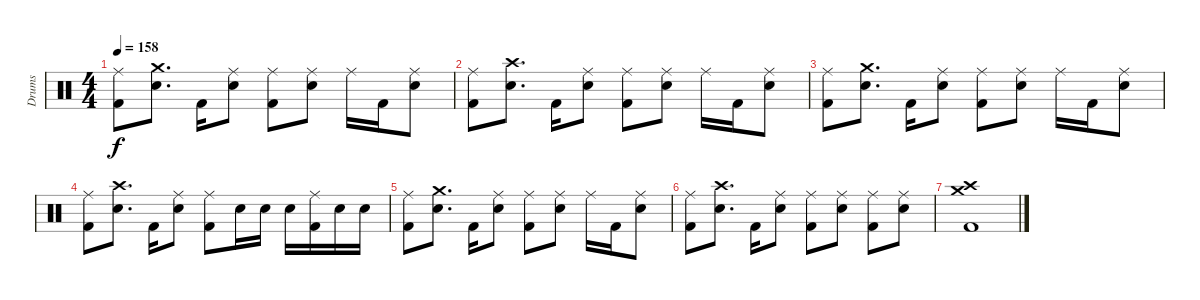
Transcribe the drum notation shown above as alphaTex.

\track ("Drums" "Drums") {instrument percussion}
\staff {score}
\articulation defaults
\ts (4 4)
\tempo 158
\clef neutral
\ks c
("Ride (middle)" "Kick (hit) 2").8{dy f} ("Crash medium (hit)" "Electric Snare (hit)").8{d} "Kick (hit) 2".16 ("Ride (middle)" "Electric Snare (hit)").8 ("Ride (middle)" "Kick (hit) 2").8 ("Ride (middle)" "Electric Snare (hit)").8 "Ride (middle)".16 "Kick (hit) 2".16 ("Ride (middle)" "Electric Snare (hit)").8 |
("Ride (middle)" "Kick (hit) 2").8 ("Crash high (hit)" "Electric Snare (hit)").8{d} "Kick (hit) 2".16 ("Ride (middle)" "Electric Snare (hit)").8 ("Ride (middle)" "Kick (hit) 2").8 ("Ride (middle)" "Electric Snare (hit)").8 "Ride (middle)".16 "Kick (hit) 2".16 ("Ride (middle)" "Electric Snare (hit)").8 |
("Ride (middle)" "Kick (hit) 2").8 ("Crash medium (hit)" "Electric Snare (hit)").8{d} "Kick (hit) 2".16 ("Ride (middle)" "Electric Snare (hit)").8 ("Ride (middle)" "Kick (hit) 2").8 ("Ride (middle)" "Electric Snare (hit)").8 "Ride (middle)".16 "Kick (hit) 2".16 ("Ride (middle)" "Electric Snare (hit)").8 |
("Ride (middle)" "Kick (hit) 2").8 ("Crash high (hit)" "Electric Snare (hit)").8{d} "Kick (hit) 2".16 ("Ride (middle)" "Electric Snare (hit)").8 ("Ride (middle)" "Kick (hit) 2").8 "Electric Snare (hit)".16 "Electric Snare (hit)".16 "Electric Snare (hit)".16 ("Ride (middle)" "Kick (hit) 2").16 "Electric Snare (hit)".16 "Electric Snare (hit)".16 |
("Ride (middle)" "Kick (hit) 2").8 ("Crash medium (hit)" "Electric Snare (hit)").8{d} "Kick (hit) 2".16 ("Ride (middle)" "Electric Snare (hit)").8 ("Ride (middle)" "Kick (hit) 2").8 ("Ride (middle)" "Electric Snare (hit)").8 "Ride (middle)".16 "Kick (hit) 2".16 ("Ride (middle)" "Electric Snare (hit)").8 |
("Ride (middle)" "Kick (hit) 2").8 ("Crash high (hit)" "Electric Snare (hit)").8{d} "Kick (hit) 2".16 ("Ride (middle)" "Electric Snare (hit)").8 ("Ride (middle)" "Kick (hit) 2").8 ("Ride (middle)" "Electric Snare (hit)").8 ("Ride (middle)" "Kick (hit) 2").8 ("Ride (middle)" "Electric Snare (hit)").8 |
("Crash medium (hit)" "Crash high (hit)" "Kick (hit) 2").1
